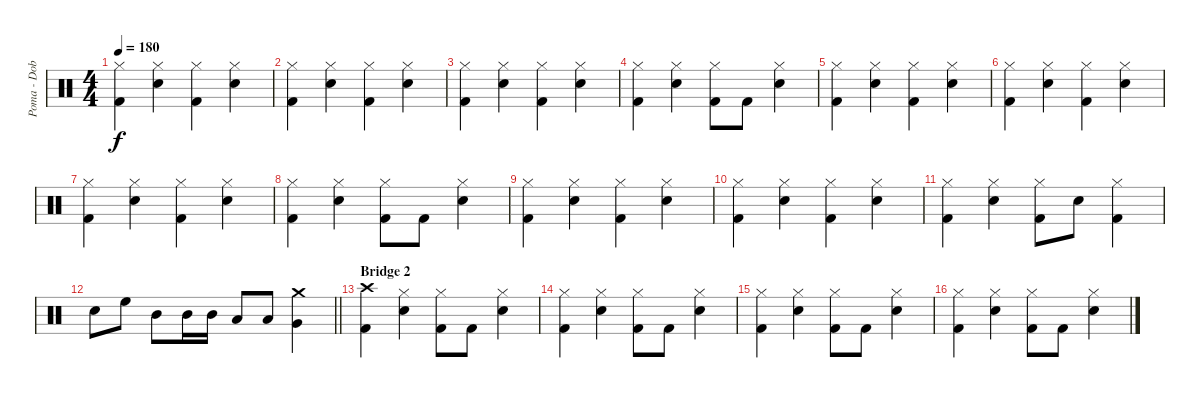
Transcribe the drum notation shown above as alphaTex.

\track ("Poma - Dob" "Poma - Dob") {instrument percussion}
\staff {score}
\articulation defaults
\ts (4 4)
\tempo 180
\clef neutral
\ks c
("Hi-Hat (closed)" "Kick (hit) 2").4{dy f} ("Hi-Hat (closed)" "Electric Snare (hit)").4 ("Hi-Hat (closed)" "Kick (hit) 2").4 ("Hi-Hat (closed)" "Electric Snare (hit)").4 |
("Hi-Hat (closed)" "Kick (hit) 2").4 ("Hi-Hat (closed)" "Electric Snare (hit)").4 ("Hi-Hat (closed)" "Kick (hit) 2").4 ("Hi-Hat (closed)" "Electric Snare (hit)").4 |
("Hi-Hat (closed)" "Kick (hit) 2").4 ("Hi-Hat (closed)" "Electric Snare (hit)").4 ("Hi-Hat (closed)" "Kick (hit) 2").4 ("Hi-Hat (closed)" "Electric Snare (hit)").4 |
("Hi-Hat (closed)" "Kick (hit) 2").4 ("Hi-Hat (closed)" "Electric Snare (hit)").4 ("Hi-Hat (closed)" "Kick (hit) 2").8 "Kick (hit) 2".8 ("Hi-Hat (closed)" "Electric Snare (hit)").4 |
("Hi-Hat (closed)" "Kick (hit) 2").4 ("Hi-Hat (closed)" "Electric Snare (hit)").4 ("Hi-Hat (closed)" "Kick (hit) 2").4 ("Hi-Hat (closed)" "Electric Snare (hit)").4 |
("Hi-Hat (closed)" "Kick (hit) 2").4 ("Hi-Hat (closed)" "Electric Snare (hit)").4 ("Hi-Hat (closed)" "Kick (hit) 2").4 ("Hi-Hat (closed)" "Electric Snare (hit)").4 |
("Hi-Hat (closed)" "Kick (hit) 2").4 ("Hi-Hat (closed)" "Electric Snare (hit)").4 ("Hi-Hat (closed)" "Kick (hit) 2").4 ("Hi-Hat (closed)" "Electric Snare (hit)").4 |
("Hi-Hat (closed)" "Kick (hit) 2").4 ("Hi-Hat (closed)" "Electric Snare (hit)").4 ("Hi-Hat (closed)" "Kick (hit) 2").8 "Kick (hit) 2".8 ("Hi-Hat (closed)" "Electric Snare (hit)").4 |
("Hi-Hat (closed)" "Kick (hit) 2").4 ("Hi-Hat (closed)" "Electric Snare (hit)").4 ("Hi-Hat (closed)" "Kick (hit) 2").4 ("Hi-Hat (closed)" "Electric Snare (hit)").4 |
("Hi-Hat (closed)" "Kick (hit) 2").4 ("Hi-Hat (closed)" "Electric Snare (hit)").4 ("Hi-Hat (closed)" "Kick (hit) 2").4 ("Hi-Hat (closed)" "Electric Snare (hit)").4 |
("Hi-Hat (closed)" "Kick (hit) 2").4 ("Hi-Hat (closed)" "Electric Snare (hit)").4 ("Hi-Hat (closed)" "Kick (hit) 2").8 "Electric Snare (hit)".8 ("Hi-Hat (closed)" "Kick (hit) 2").4 |
\barLineRight lightlight "Electric Snare (hit)".8 "High Floor Tom (hit)".8 "Mid Tom (hit)".8 "Mid Tom (hit)".16 "Mid Tom (hit)".16 "Low Tom (hit)".8 "Low Tom (hit)".8
("Crash medium (hit)" "Very Low Tom (hit)").4 |
\section ("" "Bridge 2")
("Crash high (hit)" "Kick (hit) 2").4 ("Hi-Hat (closed)" "Electric Snare (hit)").4 ("Hi-Hat (closed)" "Kick (hit) 2").8 "Kick (hit) 2".8 ("Hi-Hat (closed)" "Electric Snare (hit)").4 |
("Hi-Hat (closed)" "Kick (hit) 2").4 ("Hi-Hat (closed)" "Electric Snare (hit)").4 ("Hi-Hat (closed)" "Kick (hit) 2").8 "Kick (hit) 2".8 ("Hi-Hat (closed)" "Electric Snare (hit)").4 |
("Hi-Hat (closed)" "Kick (hit) 2").4 ("Hi-Hat (closed)" "Electric Snare (hit)").4 ("Hi-Hat (closed)" "Kick (hit) 2").8 "Kick (hit) 2".8 ("Hi-Hat (closed)" "Electric Snare (hit)").4 |
("Hi-Hat (closed)" "Kick (hit) 2").4 ("Hi-Hat (closed)" "Electric Snare (hit)").4 ("Hi-Hat (closed)" "Kick (hit) 2").8 "Kick (hit) 2".8 ("Hi-Hat (closed)" "Electric Snare (hit)").4
